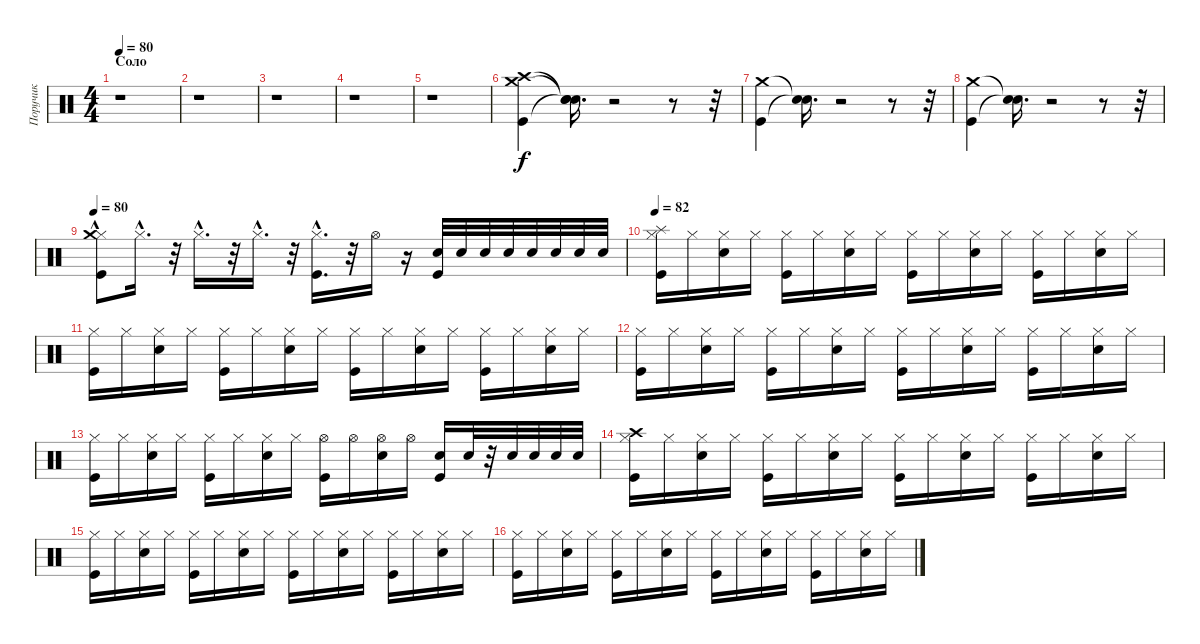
\track ("Поручик" "Поручик") {instrument percussion}
\staff {score}
\articulation defaults
\ts (4 4)
\section ("" "Соло")
\tempo 80
\clef neutral
\ks c
r.1{dy f} |
r.1 |
r.1 |
r.1 |
r.1 |
("Crash high (hit)" "Kick (hit)" "Crash medium (hit)").4 ("Snare (hit)"{t} "Snare (hit)"{t} "Snare (hit)"{t}).16{d} r.2 r.8 r.32 |
("Kick (hit)" "Crash medium (hit)").4 ("Snare (hit)"{t} "Snare (hit)"{t}).16{d} r.2 r.8 r.32 |
("Kick (hit)" "Crash medium (hit)").4 ("Snare (hit)"{t} "Snare (hit)"{t}).16{d} r.2 r.8 r.32 |
\tempo 80
("Hi-Hat (closed)"{hac} "Kick (hit)" "Crash medium (hit)").8 "Hi-Hat (closed)"{hac}.16{d} r.32 "Hi-Hat (closed)"{hac}.16{d} r.32 "Hi-Hat (closed)"{hac}.16{d} r.32 ("Kick (hit)" "Hi-Hat (closed)"{hac}).16{d} r.32 "Hi-Hat (open)".16 r.16 ("Kick (hit)" "Snare (hit) 2").32 "Snare (hit) 2".32 "Snare (hit) 2".32 "Snare (hit) 2".32 "Snare (hit) 2".32 "Snare (hit) 2".32 "Snare (hit) 2".32 "Snare (hit) 2".32 |
\tempo 82
("Splash (hit)" "Kick (hit)" "Hi-Hat (closed)").16 "Hi-Hat (closed)".16 ("Snare (hit) 2" "Hi-Hat (closed)").16 "Hi-Hat (closed)".16 ("Hi-Hat (closed)" "Kick (hit)").16 "Hi-Hat (closed)".16 ("Snare (hit) 2" "Hi-Hat (closed)").16 "Hi-Hat (closed)".16 ("Kick (hit)" "Hi-Hat (closed)").16 "Hi-Hat (closed)".16 ("Snare (hit) 2" "Hi-Hat (closed)").16 "Hi-Hat (closed)".16 ("Hi-Hat (closed)" "Kick (hit)").16 "Hi-Hat (closed)".16 ("Snare (hit) 2" "Hi-Hat (closed)").16 "Hi-Hat (closed)".16 |
("Kick (hit)" "Hi-Hat (closed)").16 "Hi-Hat (closed)".16 ("Snare (hit) 2" "Hi-Hat (closed)").16 "Hi-Hat (closed)".16 ("Hi-Hat (closed)" "Kick (hit)").16 "Hi-Hat (closed)".16 ("Snare (hit) 2" "Hi-Hat (closed)").16 "Hi-Hat (closed)".16 ("Hi-Hat (closed)" "Kick (hit)").16 "Hi-Hat (closed)".16 ("Snare (hit) 2" "Hi-Hat (closed)").16 "Hi-Hat (closed)".16 ("Kick (hit)" "Hi-Hat (closed)").16 "Hi-Hat (closed)".16 ("Snare (hit) 2" "Hi-Hat (closed)").16 "Hi-Hat (closed)".16 |
("Kick (hit)" "Hi-Hat (closed)").16 "Hi-Hat (closed)".16 ("Snare (hit) 2" "Hi-Hat (closed)").16 "Hi-Hat (closed)".16 ("Hi-Hat (closed)" "Kick (hit)").16 "Hi-Hat (closed)".16 ("Snare (hit) 2" "Hi-Hat (closed)").16 "Hi-Hat (closed)".16 ("Kick (hit)" "Hi-Hat (closed)").16 "Hi-Hat (closed)".16 ("Snare (hit) 2" "Hi-Hat (closed)").16 "Hi-Hat (closed)".16 ("Hi-Hat (closed)" "Kick (hit)").16 "Hi-Hat (closed)".16 ("Snare (hit) 2" "Hi-Hat (closed)").16 "Hi-Hat (closed)".16 |
("Kick (hit)" "Hi-Hat (closed)").16 "Hi-Hat (closed)".16 ("Snare (hit) 2" "Hi-Hat (closed)").16 "Hi-Hat (closed)".16 ("Hi-Hat (closed)" "Kick (hit)").16 "Hi-Hat (closed)".16 ("Snare (hit) 2" "Hi-Hat (closed)").16 "Hi-Hat (closed)".16 ("Kick (hit)" "Hi-Hat (open)").16 "Hi-Hat (open)".16 ("Hi-Hat (open)" "Snare (hit) 2").16 "Hi-Hat (open)".16 ("Kick (hit)" "Snare (hit) 2").16 "Snare (hit) 2".32 r.32 "Snare (hit) 2".32 "Snare (hit) 2".32 "Snare (hit) 2".32 "Snare (hit) 2".32 |
("Kick (hit)" "Hi-Hat (closed)" "Crash high (hit)").16 "Hi-Hat (closed)".16 ("Snare (hit) 2" "Hi-Hat (closed)").16 "Hi-Hat (closed)".16 ("Hi-Hat (closed)" "Kick (hit)").16 "Hi-Hat (closed)".16 ("Snare (hit) 2" "Hi-Hat (closed)").16 "Hi-Hat (closed)".16 ("Kick (hit)" "Hi-Hat (closed)").16 "Hi-Hat (closed)".16 ("Hi-Hat (closed)" "Snare (hit) 2").16 "Hi-Hat (closed)".16 ("Hi-Hat (closed)" "Kick (hit)").16 "Hi-Hat (closed)".16 ("Hi-Hat (closed)" "Snare (hit) 2").16 "Hi-Hat (closed)".16 |
("Kick (hit)" "Hi-Hat (closed)").16 "Hi-Hat (closed)".16 ("Snare (hit) 2" "Hi-Hat (closed)").16 "Hi-Hat (closed)".16 ("Kick (hit)" "Hi-Hat (closed)").16 "Hi-Hat (closed)".16 ("Snare (hit) 2" "Hi-Hat (closed)").16 "Hi-Hat (closed)".16 ("Kick (hit)" "Hi-Hat (closed)").16 "Hi-Hat (closed)".16 ("Hi-Hat (closed)" "Snare (hit) 2").16 "Hi-Hat (closed)".16 ("Kick (hit)" "Hi-Hat (closed)").16 "Hi-Hat (closed)".16 ("Hi-Hat (closed)" "Snare (hit) 2").16 "Hi-Hat (closed)".16 |
("Kick (hit)" "Hi-Hat (closed)").16 "Hi-Hat (closed)".16 ("Hi-Hat (closed)" "Snare (hit) 2").16 "Hi-Hat (closed)".16 ("Hi-Hat (closed)" "Kick (hit)").16 "Hi-Hat (closed)".16 ("Snare (hit) 2" "Hi-Hat (closed)").16 "Hi-Hat (closed)".16 ("Kick (hit)" "Hi-Hat (closed)").16 "Hi-Hat (closed)".16 ("Snare (hit) 2" "Hi-Hat (closed)").16 "Hi-Hat (closed)".16 ("Kick (hit)" "Hi-Hat (closed)").16 "Hi-Hat (closed)".16 ("Snare (hit) 2" "Hi-Hat (closed)").16 "Hi-Hat (closed)".16
